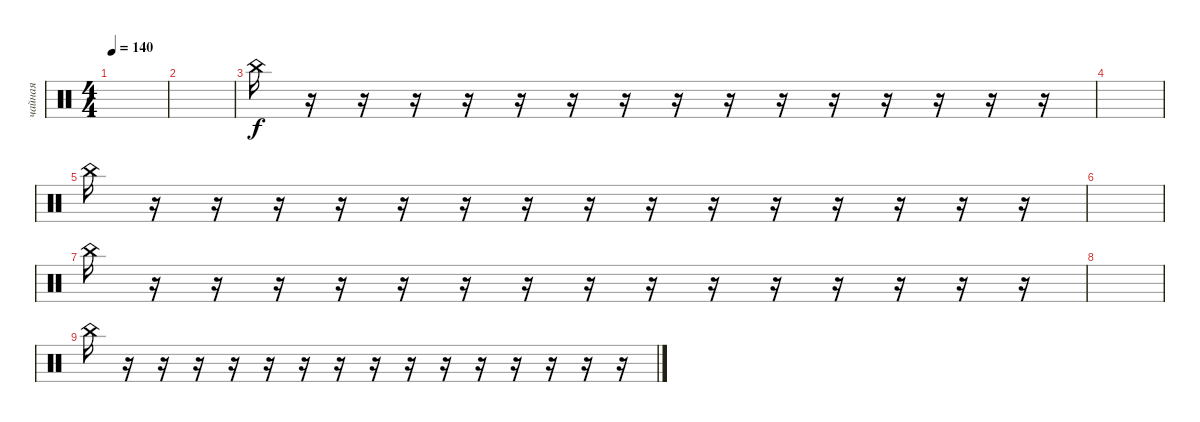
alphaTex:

\track ("чайная" "чайная") {mute instrument percussion}
\staff {score}
\articulation defaults
\ts (4 4)
\tempo 140
\clef neutral
\ks c
|
|
"China (hit)".16 r.16 r.16 r.16 r.16 r.16 r.16 r.16 r.16 r.16 r.16 r.16 r.16 r.16 r.16 r.16 |
|
"China (hit)".16 r.16 r.16 r.16 r.16 r.16 r.16 r.16 r.16 r.16 r.16 r.16 r.16 r.16 r.16 r.16 |
|
"China (hit)".16 r.16 r.16 r.16 r.16 r.16 r.16 r.16 r.16 r.16 r.16 r.16 r.16 r.16 r.16 r.16 |
|
"China (hit)".16 r.16 r.16 r.16 r.16 r.16 r.16 r.16 r.16 r.16 r.16 r.16 r.16 r.16 r.16 r.16
